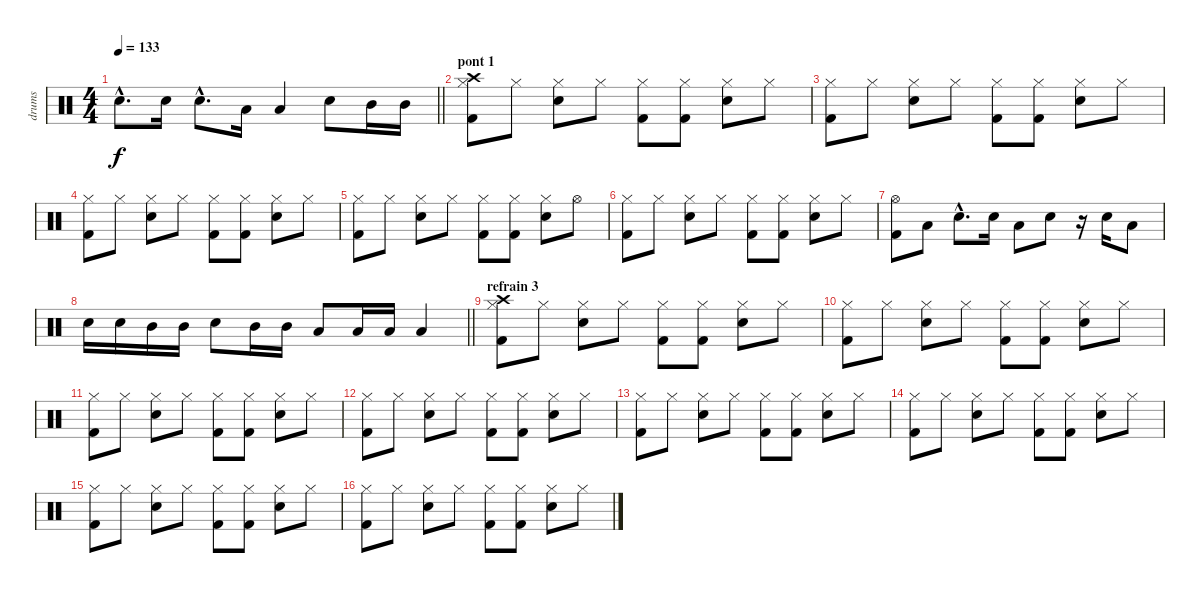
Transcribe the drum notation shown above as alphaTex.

\track ("drums" "drums") {instrument percussion}
\staff {score}
\articulation defaults
\ts (4 4)
\tempo 133
\clef neutral
\barLineRight lightlight
\ks c "Snare (hit) 2"{hac}.8{d dy f} "Snare (hit) 2".16 "Snare (hit) 2"{hac}.8{d} "Low Tom (hit)".16 "Low Tom (hit)".4 "Snare (hit) 2".8 "Mid Tom (hit)".16 "Mid Tom (hit)".16
|
\section ("" "pont 1")
("Crash high (hit)" "Hi-Hat (closed)" "Kick (hit) 2").8 "Hi-Hat (closed)".8 ("Hi-Hat (closed)" "Snare (hit) 2").8 "Hi-Hat (closed)".8 ("Hi-Hat (closed)" "Kick (hit) 2").8 ("Hi-Hat (closed)" "Kick (hit) 2").8 ("Hi-Hat (closed)" "Snare (hit) 2").8 "Hi-Hat (closed)".8 |
("Hi-Hat (closed)" "Kick (hit) 2").8 "Hi-Hat (closed)".8 ("Hi-Hat (closed)" "Snare (hit) 2").8 "Hi-Hat (closed)".8 ("Hi-Hat (closed)" "Kick (hit) 2").8 ("Hi-Hat (closed)" "Kick (hit) 2").8 ("Hi-Hat (closed)" "Snare (hit) 2").8 "Hi-Hat (closed)".8 |
("Hi-Hat (closed)" "Kick (hit) 2").8 "Hi-Hat (closed)".8 ("Hi-Hat (closed)" "Snare (hit) 2").8 "Hi-Hat (closed)".8 ("Hi-Hat (closed)" "Kick (hit) 2").8 ("Hi-Hat (closed)" "Kick (hit) 2").8 ("Hi-Hat (closed)" "Snare (hit) 2").8 "Hi-Hat (closed)".8 |
("Hi-Hat (closed)" "Kick (hit) 2").8 "Hi-Hat (closed)".8 ("Hi-Hat (closed)" "Snare (hit) 2").8 "Hi-Hat (closed)".8 ("Hi-Hat (closed)" "Kick (hit) 2").8 ("Hi-Hat (closed)" "Kick (hit) 2").8 ("Hi-Hat (closed)" "Snare (hit) 2").8 "Hi-Hat (open)".8 |
("Hi-Hat (closed)" "Kick (hit) 2").8 "Hi-Hat (closed)".8 ("Hi-Hat (closed)" "Snare (hit) 2").8 "Hi-Hat (closed)".8 ("Hi-Hat (closed)" "Kick (hit) 2").8 ("Hi-Hat (closed)" "Kick (hit) 2").8 ("Hi-Hat (closed)" "Snare (hit) 2").8 "Hi-Hat (closed)".8 |
("Hi-Hat (open)" "Kick (hit) 2").8 "Low Tom (hit)".8 "Snare (hit) 2"{hac}.8{d} "Snare (hit) 2".16 "Low Tom (hit)".8 "Snare (hit) 2".8 r.16 "Snare (hit) 2".16 "Low Tom (hit)".8 |
\barLineRight lightlight "Snare (hit) 2".16 "Snare (hit) 2".16 "Mid Tom (hit)".16 "Mid Tom (hit)".16 "Snare (hit) 2".8 "Mid Tom (hit)".16 "Mid Tom (hit)".16 "Low Tom (hit)".8 "Low Tom (hit)".16 "Low Tom (hit)".16 "Low Tom (hit)".4
|
\section ("" "refrain 3")
("Crash high (hit)" "Hi-Hat (closed)" "Kick (hit) 2").8 "Hi-Hat (closed)".8 ("Hi-Hat (closed)" "Snare (hit) 2").8 "Hi-Hat (closed)".8 ("Hi-Hat (closed)" "Kick (hit) 2").8 ("Hi-Hat (closed)" "Kick (hit) 2").8 ("Hi-Hat (closed)" "Snare (hit) 2").8 "Hi-Hat (closed)".8 |
("Hi-Hat (closed)" "Kick (hit) 2").8 "Hi-Hat (closed)".8 ("Hi-Hat (closed)" "Snare (hit) 2").8 "Hi-Hat (closed)".8 ("Hi-Hat (closed)" "Kick (hit) 2").8 ("Hi-Hat (closed)" "Kick (hit) 2").8 ("Hi-Hat (closed)" "Snare (hit) 2").8 "Hi-Hat (closed)".8 |
("Hi-Hat (closed)" "Kick (hit) 2").8 "Hi-Hat (closed)".8 ("Hi-Hat (closed)" "Snare (hit) 2").8 "Hi-Hat (closed)".8 ("Hi-Hat (closed)" "Kick (hit) 2").8 ("Hi-Hat (closed)" "Kick (hit) 2").8 ("Hi-Hat (closed)" "Snare (hit) 2").8 "Hi-Hat (closed)".8 |
("Hi-Hat (closed)" "Kick (hit) 2").8 "Hi-Hat (closed)".8 ("Hi-Hat (closed)" "Snare (hit) 2").8 "Hi-Hat (closed)".8 ("Hi-Hat (closed)" "Kick (hit) 2").8 ("Hi-Hat (closed)" "Kick (hit) 2").8 ("Hi-Hat (closed)" "Snare (hit) 2").8 "Hi-Hat (closed)".8 |
("Hi-Hat (closed)" "Kick (hit) 2").8 "Hi-Hat (closed)".8 ("Hi-Hat (closed)" "Snare (hit) 2").8 "Hi-Hat (closed)".8 ("Hi-Hat (closed)" "Kick (hit) 2").8 ("Hi-Hat (closed)" "Kick (hit) 2").8 ("Hi-Hat (closed)" "Snare (hit) 2").8 "Hi-Hat (closed)".8 |
("Hi-Hat (closed)" "Kick (hit) 2").8 "Hi-Hat (closed)".8 ("Hi-Hat (closed)" "Snare (hit) 2").8 "Hi-Hat (closed)".8 ("Hi-Hat (closed)" "Kick (hit) 2").8 ("Hi-Hat (closed)" "Kick (hit) 2").8 ("Hi-Hat (closed)" "Snare (hit) 2").8 "Hi-Hat (closed)".8 |
("Hi-Hat (closed)" "Kick (hit) 2").8 "Hi-Hat (closed)".8 ("Hi-Hat (closed)" "Snare (hit) 2").8 "Hi-Hat (closed)".8 ("Hi-Hat (closed)" "Kick (hit) 2").8 ("Hi-Hat (closed)" "Kick (hit) 2").8 ("Hi-Hat (closed)" "Snare (hit) 2").8 "Hi-Hat (closed)".8 |
("Hi-Hat (closed)" "Kick (hit) 2").8 "Hi-Hat (closed)".8 ("Hi-Hat (closed)" "Snare (hit) 2").8 "Hi-Hat (closed)".8 ("Hi-Hat (closed)" "Kick (hit) 2").8 ("Hi-Hat (closed)" "Kick (hit) 2").8 ("Hi-Hat (closed)" "Snare (hit) 2").8 "Hi-Hat (closed)".8
